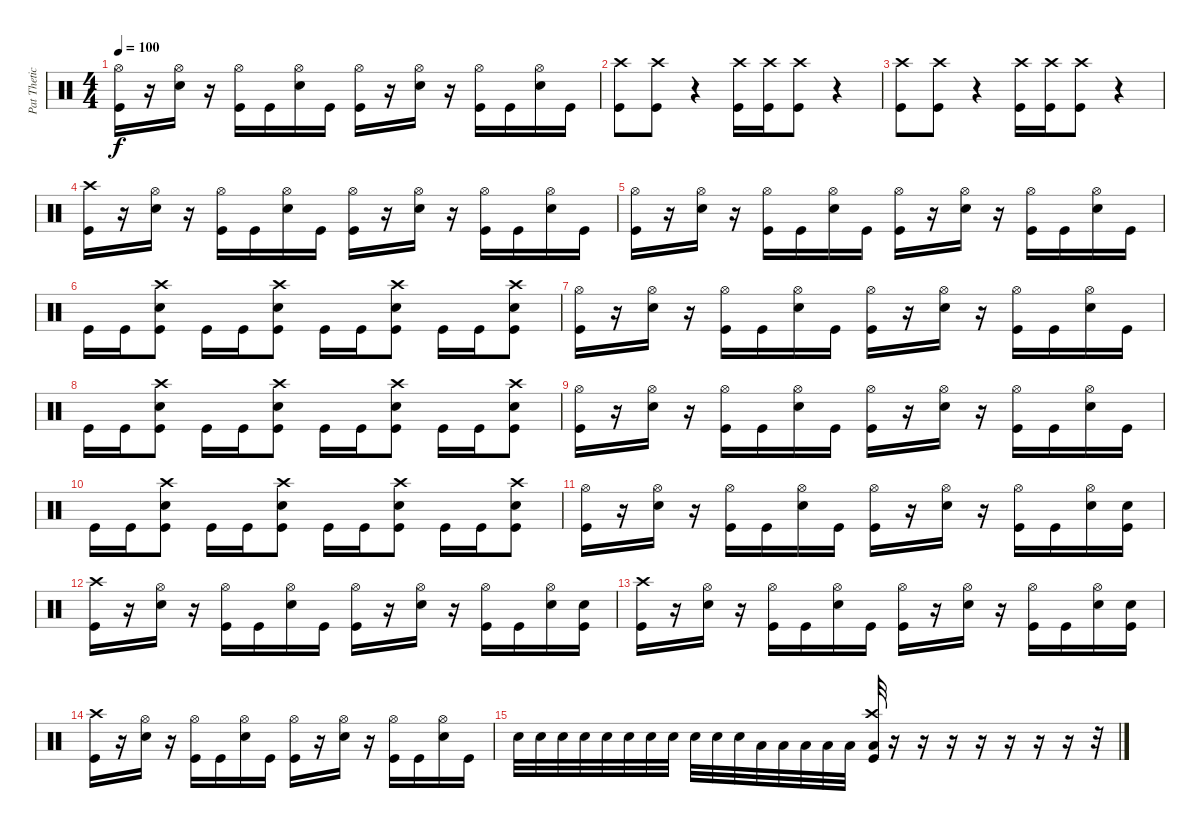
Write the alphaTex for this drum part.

\track ("Pat Thetic" "Pat Thetic") {instrument percussion}
\staff {score}
\articulation defaults
\ts (4 4)
\tempo 100
\clef neutral
\ks c
("Hi-Hat (open)" "Kick (hit)").16{dy f} r.16 ("Hi-Hat (open)" "Snare (hit) 2").16 r.16 ("Hi-Hat (open)" "Kick (hit)").16 "Kick (hit)".16 ("Hi-Hat (open)" "Snare (hit) 2").16 "Kick (hit)".16 ("Hi-Hat (open)" "Kick (hit)").16 r.16 ("Hi-Hat (open)" "Snare (hit) 2").16 r.16 ("Hi-Hat (open)" "Kick (hit)").16 "Kick (hit)".16 ("Hi-Hat (open)" "Snare (hit) 2").16 "Kick (hit)".16 |
("Crash high (hit)" "Kick (hit)").8 ("Crash high (hit)" "Kick (hit)").8 r.4 ("Crash high (hit)" "Kick (hit)").16 ("Crash high (hit)" "Kick (hit)").16 ("Crash high (hit)" "Kick (hit)").8 r.4 |
("Crash high (hit)" "Kick (hit)").8 ("Crash high (hit)" "Kick (hit)").8 r.4 ("Crash high (hit)" "Kick (hit)").16 ("Crash high (hit)" "Kick (hit)").16 ("Crash high (hit)" "Kick (hit)").8 r.4 |
("Crash high (hit)" "Kick (hit)").16 r.16 ("Hi-Hat (open)" "Snare (hit) 2").16 r.16 ("Hi-Hat (open)" "Kick (hit)").16 "Kick (hit)".16 ("Hi-Hat (open)" "Snare (hit) 2").16 "Kick (hit)".16 ("Hi-Hat (open)" "Kick (hit)").16 r.16 ("Hi-Hat (open)" "Snare (hit) 2").16 r.16 ("Hi-Hat (open)" "Kick (hit)").16 "Kick (hit)".16 ("Hi-Hat (open)" "Snare (hit) 2").16 "Kick (hit)".16 |
("Hi-Hat (open)" "Kick (hit)").16 r.16 ("Hi-Hat (open)" "Snare (hit) 2").16 r.16 ("Hi-Hat (open)" "Kick (hit)").16 "Kick (hit)".16 ("Hi-Hat (open)" "Snare (hit) 2").16 "Kick (hit)".16 ("Hi-Hat (open)" "Kick (hit)").16 r.16 ("Hi-Hat (open)" "Snare (hit) 2").16 r.16 ("Hi-Hat (open)" "Kick (hit)").16 "Kick (hit)".16 ("Hi-Hat (open)" "Snare (hit) 2").16 "Kick (hit)".16 |
"Kick (hit)".16 "Kick (hit)".16 ("Crash high (hit)" "Snare (hit) 2" "Kick (hit)").8 "Kick (hit)".16 "Kick (hit)".16 ("Crash high (hit)" "Snare (hit) 2" "Kick (hit)").8 "Kick (hit)".16 "Kick (hit)".16 ("Crash high (hit)" "Snare (hit) 2" "Kick (hit)").8 "Kick (hit)".16 "Kick (hit)".16 ("Crash high (hit)" "Snare (hit) 2" "Kick (hit)").8 |
("Hi-Hat (open)" "Kick (hit)").16 r.16 ("Hi-Hat (open)" "Snare (hit) 2").16 r.16 ("Hi-Hat (open)" "Kick (hit)").16 "Kick (hit)".16 ("Hi-Hat (open)" "Snare (hit) 2").16 "Kick (hit)".16 ("Hi-Hat (open)" "Kick (hit)").16 r.16 ("Hi-Hat (open)" "Snare (hit) 2").16 r.16 ("Hi-Hat (open)" "Kick (hit)").16 "Kick (hit)".16 ("Hi-Hat (open)" "Snare (hit) 2").16 "Kick (hit)".16 |
"Kick (hit)".16 "Kick (hit)".16 ("Crash high (hit)" "Snare (hit) 2" "Kick (hit)").8 "Kick (hit)".16 "Kick (hit)".16 ("Crash high (hit)" "Snare (hit) 2" "Kick (hit)").8 "Kick (hit)".16 "Kick (hit)".16 ("Crash high (hit)" "Snare (hit) 2" "Kick (hit)").8 "Kick (hit)".16 "Kick (hit)".16 ("Crash high (hit)" "Snare (hit) 2" "Kick (hit)").8 |
("Hi-Hat (open)" "Kick (hit)").16 r.16 ("Hi-Hat (open)" "Snare (hit) 2").16 r.16 ("Hi-Hat (open)" "Kick (hit)").16 "Kick (hit)".16 ("Hi-Hat (open)" "Snare (hit) 2").16 "Kick (hit)".16 ("Hi-Hat (open)" "Kick (hit)").16 r.16 ("Hi-Hat (open)" "Snare (hit) 2").16 r.16 ("Hi-Hat (open)" "Kick (hit)").16 "Kick (hit)".16 ("Hi-Hat (open)" "Snare (hit) 2").16 "Kick (hit)".16 |
"Kick (hit)".16 "Kick (hit)".16 ("Crash high (hit)" "Snare (hit) 2" "Kick (hit)").8 "Kick (hit)".16 "Kick (hit)".16 ("Crash high (hit)" "Snare (hit) 2" "Kick (hit)").8 "Kick (hit)".16 "Kick (hit)".16 ("Crash high (hit)" "Snare (hit) 2" "Kick (hit)").8 "Kick (hit)".16 "Kick (hit)".16 ("Crash high (hit)" "Snare (hit) 2" "Kick (hit)").8 |
("Hi-Hat (open)" "Kick (hit)").16 r.16 ("Hi-Hat (open)" "Snare (hit) 2").16 r.16 ("Hi-Hat (open)" "Kick (hit)").16 "Kick (hit)".16 ("Hi-Hat (open)" "Snare (hit) 2").16 "Kick (hit)".16 ("Hi-Hat (open)" "Kick (hit)").16 r.16 ("Hi-Hat (open)" "Snare (hit) 2").16 r.16 ("Hi-Hat (open)" "Kick (hit)").16 "Kick (hit)".16 ("Hi-Hat (open)" "Snare (hit) 2").16 ("Kick (hit)" "Snare (hit) 2").16 |
("Crash high (hit)" "Kick (hit)").16 r.16 ("Hi-Hat (open)" "Snare (hit) 2").16 r.16 ("Hi-Hat (open)" "Kick (hit)").16 "Kick (hit)".16 ("Hi-Hat (open)" "Snare (hit) 2").16 "Kick (hit)".16 ("Hi-Hat (open)" "Kick (hit)").16 r.16 ("Hi-Hat (open)" "Snare (hit) 2").16 r.16 ("Hi-Hat (open)" "Kick (hit)").16 "Kick (hit)".16 ("Hi-Hat (open)" "Snare (hit) 2").16 ("Kick (hit)" "Snare (hit) 2").16 |
("Crash high (hit)" "Kick (hit)").16 r.16 ("Hi-Hat (open)" "Snare (hit) 2").16 r.16 ("Hi-Hat (open)" "Kick (hit)").16 "Kick (hit)".16 ("Hi-Hat (open)" "Snare (hit) 2").16 "Kick (hit)".16 ("Hi-Hat (open)" "Kick (hit)").16 r.16 ("Hi-Hat (open)" "Snare (hit) 2").16 r.16 ("Hi-Hat (open)" "Kick (hit)").16 "Kick (hit)".16 ("Hi-Hat (open)" "Snare (hit) 2").16 ("Kick (hit)" "Snare (hit) 2").16 |
("Crash high (hit)" "Kick (hit)").16 r.16 ("Hi-Hat (open)" "Snare (hit) 2").16 r.16 ("Hi-Hat (open)" "Kick (hit)").16 "Kick (hit)".16 ("Hi-Hat (open)" "Snare (hit) 2").16 "Kick (hit)".16 ("Hi-Hat (open)" "Kick (hit)").16 r.16 ("Hi-Hat (open)" "Snare (hit) 2").16 r.16 ("Hi-Hat (open)" "Kick (hit)").16 "Kick (hit)".16 ("Hi-Hat (open)" "Snare (hit) 2").16 "Kick (hit)".16 |
"Snare (hit) 2".32 "Snare (hit) 2".32 "Snare (hit) 2".32 "Snare (hit) 2".32 "Snare (hit) 2".32 "Snare (hit) 2".32 "Snare (hit) 2".32 "Snare (hit) 2".32 "Snare (hit) 2".32 "Snare (hit) 2".32 "Snare (hit) 2".32 "Low Floor Tom (hit)".32 "Low Floor Tom (hit)".32 "Low Floor Tom (hit)".32 "Low Floor Tom (hit)".32 "Low Floor Tom (hit)".32 ("Crash high (hit)" "Kick (hit)" "Low Floor Tom (hit)").32 r.16 r.16 r.16 r.16 r.16 r.16 r.16 r.32
